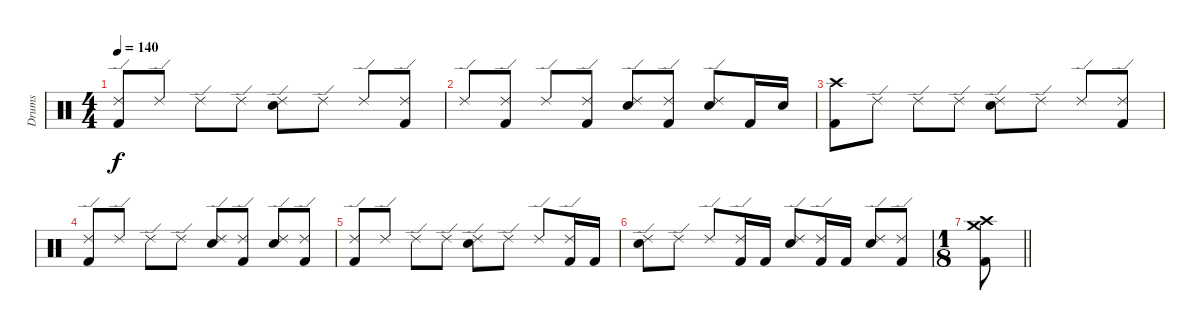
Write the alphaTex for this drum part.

\track ("Drums" "Drums") {instrument percussion}
\staff {score}
\articulation defaults
\ts (4 4)
\tempo 140
\clef neutral
\ks c
("Ride (edge) 2" "Kick (hit) 2").8{dy f} "Ride (edge) 2".8 "Ride (edge) 2".8 "Ride (edge) 2".8 ("Ride (edge) 2" "Snare (hit) 2").8 "Ride (edge) 2".8 "Ride (edge) 2".8 ("Ride (edge) 2" "Kick (hit) 2").8 |
"Ride (edge) 2".8 ("Ride (edge) 2" "Kick (hit) 2").8 "Ride (edge) 2".8 ("Ride (edge) 2" "Kick (hit) 2").8 ("Ride (edge) 2" "Snare (hit) 2").8 ("Ride (edge) 2" "Kick (hit) 2").8 ("Ride (edge) 2" "Snare (hit) 2").8 "Kick (hit) 2".16 "Snare (hit) 2".16 |
("Crash high (hit)" "Kick (hit) 2").8 "Ride (edge) 2".8 "Ride (edge) 2".8 "Ride (edge) 2".8 ("Ride (edge) 2" "Snare (hit) 2").8 "Ride (edge) 2".8 "Ride (edge) 2".8 ("Ride (edge) 2" "Kick (hit) 2").8 |
("Ride (edge) 2" "Kick (hit) 2").8 "Ride (edge) 2".8 "Ride (edge) 2".8 "Ride (edge) 2".8 ("Ride (edge) 2" "Snare (hit) 2").8 ("Ride (edge) 2" "Kick (hit) 2").8 ("Ride (edge) 2" "Snare (hit) 2").8 ("Ride (edge) 2" "Kick (hit) 2").8 |
("Ride (edge) 2" "Kick (hit) 2").8 "Ride (edge) 2".8 "Ride (edge) 2".8 "Ride (edge) 2".8 ("Ride (edge) 2" "Snare (hit) 2").8 "Ride (edge) 2".8 "Ride (edge) 2".8 ("Ride (edge) 2" "Kick (hit) 2").16 "Kick (hit) 2".16 |
("Ride (edge) 2" "Snare (hit) 2").8 "Ride (edge) 2".8 "Ride (edge) 2".8 ("Ride (edge) 2" "Kick (hit) 2").16 "Kick (hit) 2".16 ("Ride (edge) 2" "Snare (hit) 2").8 ("Ride (edge) 2" "Kick (hit) 2").16 "Kick (hit) 2".16 ("Ride (edge) 2" "Snare (hit) 2").8 ("Ride (edge) 2" "Kick (hit) 2").8 |
\ts (1 8)
\barLineRight lightlight
("Crash high (hit)" "Crash medium (hit)" "Kick (hit) 2").8
